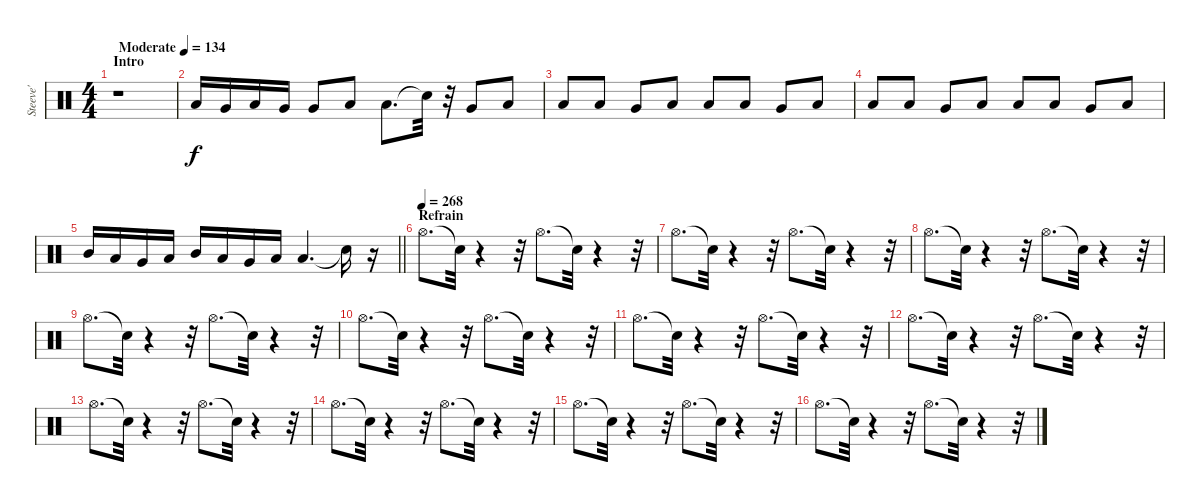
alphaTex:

\track ("Steeve'" "Steeve'") {instrument percussion}
\staff {score}
\articulation defaults
\ts (4 4)
\section ("" "Intro")
\tempo (134 "Moderate")
\clef neutral
\ks c
r.1{dy f} |
"Low Tom (hit)".16 "Very Low Tom (hit)".16 "Low Floor Tom (hit)".16 "Very Low Tom (hit)".16 "Very Low Tom (hit)".8 "Low Floor Tom (hit)".8 "Low Floor Tom (hit)".8{d} "Snare (hit)"{t}.32 r.32 "Very Low Tom (hit)".8 "Low Floor Tom (hit)".8 |
"Low Floor Tom (hit)".8 "Low Tom (hit)".8 "Very Low Tom (hit)".8 "Low Floor Tom (hit)".8 "Low Floor Tom (hit)".8 "Low Tom (hit)".8 "Very Low Tom (hit)".8 "Low Floor Tom (hit)".8 |
"Low Floor Tom (hit)".8 "Low Tom (hit)".8 "Very Low Tom (hit)".8 "Low Floor Tom (hit)".8 "Low Floor Tom (hit)".8 "Low Tom (hit)".8 "Very Low Tom (hit)".8 "Low Floor Tom (hit)".8 |
\barLineRight lightlight "Mid Tom (hit)".16 "Low Tom (hit)".16 "Very Low Tom (hit)".16 "Low Floor Tom (hit)".16 "Mid Tom (hit)".16 "Low Tom (hit)".16 "Very Low Tom (hit)".16 "Low Floor Tom (hit)".16 "Low Floor Tom (hit)".4{d} "Snare (hit)"{t}.16
r.16 |
\section ("" "Refrain")
\tempo (268)
"Hi-Hat (open)".8{d} "Snare (hit)"{t}.32 r.4 r.32 "Hi-Hat (open)".8{d} "Snare (hit)"{t}.32 r.4 r.32 |
"Hi-Hat (open)".8{d} "Snare (hit)"{t}.32 r.4 r.32 "Hi-Hat (open)".8{d} "Snare (hit)"{t}.32 r.4 r.32 |
"Hi-Hat (open)".8{d} "Snare (hit)"{t}.32 r.4 r.32 "Hi-Hat (open)".8{d} "Snare (hit)"{t}.32 r.4 r.32 |
"Hi-Hat (open)".8{d} "Snare (hit)"{t}.32 r.4 r.32 "Hi-Hat (open)".8{d} "Snare (hit)"{t}.32 r.4 r.32 |
"Hi-Hat (open)".8{d} "Snare (hit)"{t}.32 r.4 r.32 "Hi-Hat (open)".8{d} "Snare (hit)"{t}.32 r.4 r.32 |
"Hi-Hat (open)".8{d} "Snare (hit)"{t}.32 r.4 r.32 "Hi-Hat (open)".8{d} "Snare (hit)"{t}.32 r.4 r.32 |
"Hi-Hat (open)".8{d} "Snare (hit)"{t}.32 r.4 r.32 "Hi-Hat (open)".8{d} "Snare (hit)"{t}.32 r.4 r.32 |
"Hi-Hat (open)".8{d} "Snare (hit)"{t}.32 r.4 r.32 "Hi-Hat (open)".8{d} "Snare (hit)"{t}.32 r.4 r.32 |
"Hi-Hat (open)".8{d} "Snare (hit)"{t}.32 r.4 r.32 "Hi-Hat (open)".8{d} "Snare (hit)"{t}.32 r.4 r.32 |
"Hi-Hat (open)".8{d} "Snare (hit)"{t}.32 r.4 r.32 "Hi-Hat (open)".8{d} "Snare (hit)"{t}.32 r.4 r.32 |
"Hi-Hat (open)".8{d} "Snare (hit)"{t}.32 r.4 r.32 "Hi-Hat (open)".8{d} "Snare (hit)"{t}.32 r.4 r.32
